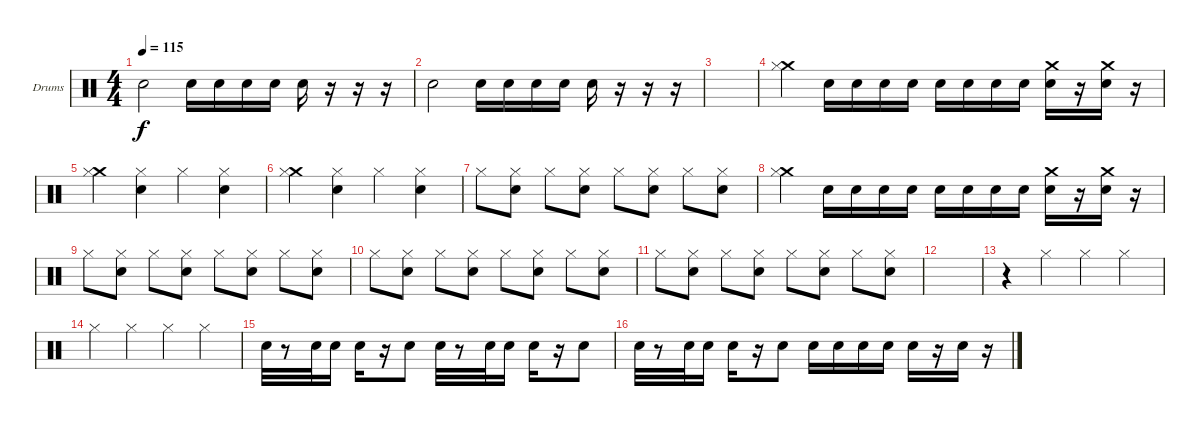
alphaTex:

\bracketExtendMode groupsimilarinstruments
\firstSystemTrackNameOrientation horizontal
\otherSystemsTrackNameOrientation horizontal
\track ("Drumkit" "Drums") {instrument percussion}
\staff {score}
\articulation defaults
\ts (4 4)
\tempo 115
\clef neutral
\ks c "Snare (hit) 2".2{dy f} "Snare (hit) 2".16 "Snare (hit) 2".16 "Snare (hit) 2".16 "Snare (hit) 2".16 "Snare (hit) 2".16
r.16 r.16 r.16 |
"Snare (hit) 2".2 "Snare (hit) 2".16 "Snare (hit) 2".16 "Snare (hit) 2".16 "Snare (hit) 2".16 "Snare (hit) 2".16 r.16 r.16 r.16 |
|
("Crash medium (hit)" "Hi-Hat (closed)").4 "Snare (hit) 2".16 "Snare (hit) 2".16 "Snare (hit) 2".16 "Snare (hit) 2".16 "Snare (hit) 2".16 "Snare (hit) 2".16 "Snare (hit) 2".16 "Snare (hit) 2".16 ("Snare (hit) 2" "Crash medium (hit)").16 r.16 ("Snare (hit) 2" "Crash medium (hit)").16 r.16 |
("Crash medium (hit)" "Hi-Hat (closed)").4 ("Hi-Hat (closed)" "Snare (hit) 2").4 "Hi-Hat (closed)".4 ("Hi-Hat (closed)" "Snare (hit) 2").4 |
("Crash medium (hit)" "Hi-Hat (closed)").4 ("Hi-Hat (closed)" "Snare (hit) 2").4 "Hi-Hat (closed)".4 ("Hi-Hat (closed)" "Snare (hit) 2").4 |
"Hi-Hat (closed)".8 ("Hi-Hat (closed)" "Snare (hit) 2").8 "Hi-Hat (closed)".8 ("Hi-Hat (closed)" "Snare (hit) 2").8 "Hi-Hat (closed)".8 ("Hi-Hat (closed)" "Snare (hit) 2").8 "Hi-Hat (closed)".8 ("Hi-Hat (closed)" "Snare (hit) 2").8 |
("Crash medium (hit)" "Hi-Hat (closed)").4 "Snare (hit) 2".16 "Snare (hit) 2".16 "Snare (hit) 2".16 "Snare (hit) 2".16 "Snare (hit) 2".16 "Snare (hit) 2".16 "Snare (hit) 2".16 "Snare (hit) 2".16 ("Snare (hit) 2" "Crash medium (hit)").16 r.16 ("Snare (hit) 2" "Crash medium (hit)").16 r.16 |
"Hi-Hat (closed)".8 ("Hi-Hat (closed)" "Snare (hit) 2").8 "Hi-Hat (closed)".8 ("Hi-Hat (closed)" "Snare (hit) 2").8 "Hi-Hat (closed)".8 ("Hi-Hat (closed)" "Snare (hit) 2").8 "Hi-Hat (closed)".8 ("Hi-Hat (closed)" "Snare (hit) 2").8 |
"Hi-Hat (closed)".8 ("Hi-Hat (closed)" "Snare (hit) 2").8 "Hi-Hat (closed)".8 ("Hi-Hat (closed)" "Snare (hit) 2").8 "Hi-Hat (closed)".8 ("Hi-Hat (closed)" "Snare (hit) 2").8 "Hi-Hat (closed)".8 ("Hi-Hat (closed)" "Snare (hit) 2").8 |
"Hi-Hat (closed)".8 ("Hi-Hat (closed)" "Snare (hit) 2").8 "Hi-Hat (closed)".8 ("Hi-Hat (closed)" "Snare (hit) 2").8 "Hi-Hat (closed)".8 ("Hi-Hat (closed)" "Snare (hit) 2").8 "Hi-Hat (closed)".8 ("Hi-Hat (closed)" "Snare (hit) 2").8 |
|
r.4 "Hi-Hat (closed)".4 "Hi-Hat (closed)".4 "Hi-Hat (closed)".4 |
"Hi-Hat (closed)".4 "Hi-Hat (closed)".4 "Hi-Hat (closed)".4 "Hi-Hat (closed)".4 |
"Snare (hit) 2".32 r.8 "Snare (hit) 2".32 "Snare (hit) 2".16 "Snare (hit) 2".16 r.16 "Snare (hit) 2".8 "Snare (hit) 2".32 r.8 "Snare (hit) 2".32 "Snare (hit) 2".16 "Snare (hit) 2".16 r.16 "Snare (hit) 2".8 |
"Snare (hit) 2".32 r.8 "Snare (hit) 2".32 "Snare (hit) 2".16 "Snare (hit) 2".16 r.16 "Snare (hit) 2".8 "Snare (hit) 2".16 "Snare (hit) 2".16 "Snare (hit) 2".16 "Snare (hit) 2".16 "Snare (hit) 2".16 r.16 "Snare (hit) 2".16 r.16
